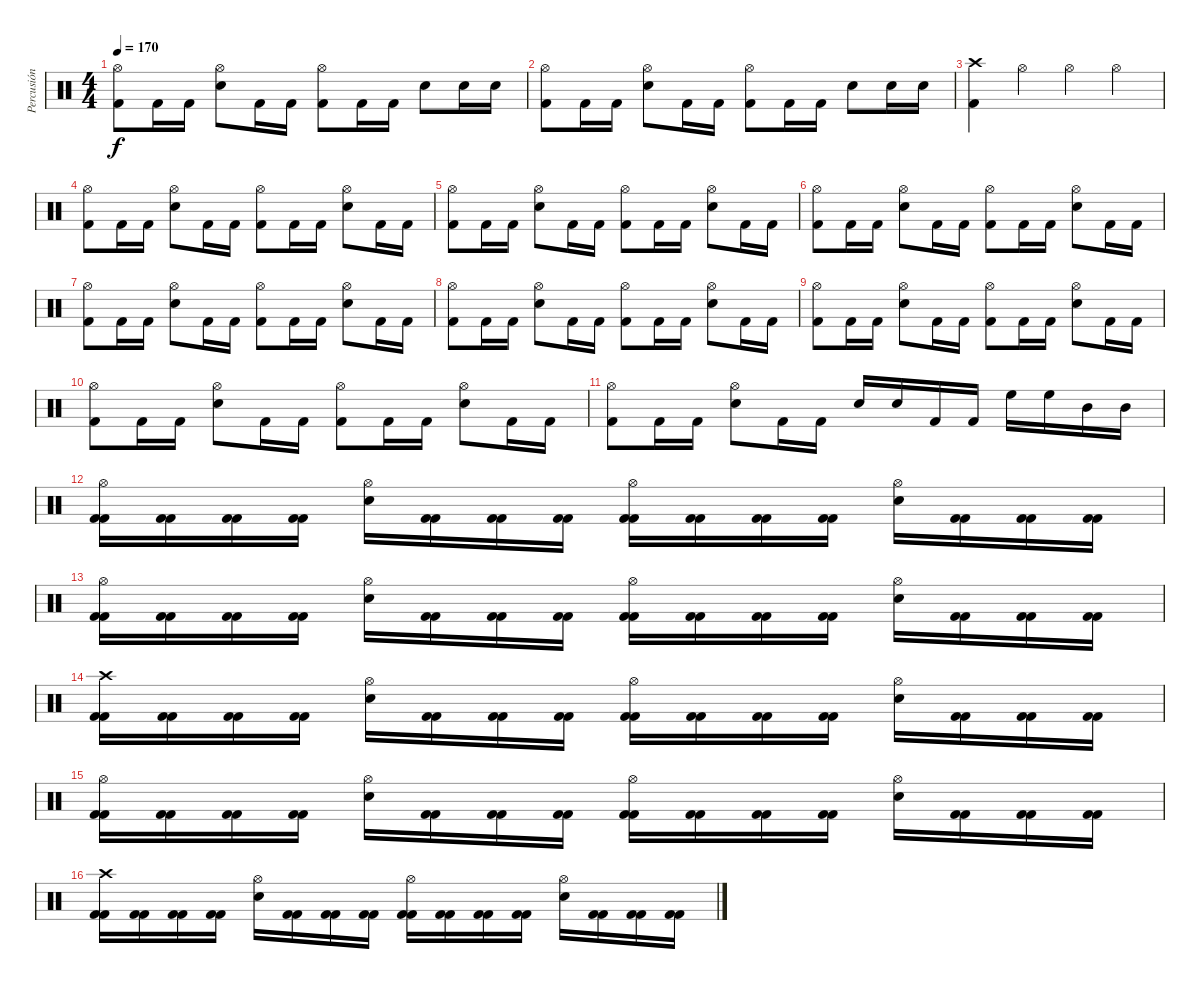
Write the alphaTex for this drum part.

\track ("Percusión" "Percusión") {instrument percussion}
\staff {score}
\articulation defaults
\ts (4 4)
\tempo 170
\clef neutral
\ks c
("Hi-Hat (open)" "Kick (hit) 2").8{dy f} "Kick (hit) 2".16 "Kick (hit) 2".16 ("Hi-Hat (open)" "Electric Snare (hit)").8 "Kick (hit) 2".16 "Kick (hit) 2".16 ("Hi-Hat (open)" "Kick (hit) 2").8 "Kick (hit) 2".16 "Kick (hit) 2".16 "Electric Snare (hit)".8 "Electric Snare (hit)".16 "Electric Snare (hit)".16 |
("Hi-Hat (open)" "Kick (hit) 2").8 "Kick (hit) 2".16 "Kick (hit) 2".16 ("Hi-Hat (open)" "Electric Snare (hit)").8 "Kick (hit) 2".16 "Kick (hit) 2".16 ("Hi-Hat (open)" "Kick (hit) 2").8 "Kick (hit) 2".16 "Kick (hit) 2".16 "Electric Snare (hit)".8 "Electric Snare (hit)".16 "Electric Snare (hit)".16 |
("Crash high (hit)" "Kick (hit) 2").4 "Hi-Hat (open)".4 "Hi-Hat (open)".4 "Hi-Hat (open)".4 |
("Hi-Hat (open)" "Kick (hit) 2").8 "Kick (hit) 2".16 "Kick (hit) 2".16 ("Hi-Hat (open)" "Electric Snare (hit)").8 "Kick (hit) 2".16 "Kick (hit) 2".16 ("Hi-Hat (open)" "Kick (hit) 2").8 "Kick (hit) 2".16 "Kick (hit) 2".16 ("Hi-Hat (open)" "Electric Snare (hit)").8 "Kick (hit) 2".16 "Kick (hit) 2".16 |
("Hi-Hat (open)" "Kick (hit) 2").8 "Kick (hit) 2".16 "Kick (hit) 2".16 ("Hi-Hat (open)" "Electric Snare (hit)").8 "Kick (hit) 2".16 "Kick (hit) 2".16 ("Hi-Hat (open)" "Kick (hit) 2").8 "Kick (hit) 2".16 "Kick (hit) 2".16 ("Hi-Hat (open)" "Electric Snare (hit)").8 "Kick (hit) 2".16 "Kick (hit) 2".16 |
("Hi-Hat (open)" "Kick (hit) 2").8 "Kick (hit) 2".16 "Kick (hit) 2".16 ("Hi-Hat (open)" "Electric Snare (hit)").8 "Kick (hit) 2".16 "Kick (hit) 2".16 ("Hi-Hat (open)" "Kick (hit) 2").8 "Kick (hit) 2".16 "Kick (hit) 2".16 ("Hi-Hat (open)" "Electric Snare (hit)").8 "Kick (hit) 2".16 "Kick (hit) 2".16 |
("Hi-Hat (open)" "Kick (hit) 2").8 "Kick (hit) 2".16 "Kick (hit) 2".16 ("Hi-Hat (open)" "Electric Snare (hit)").8 "Kick (hit) 2".16 "Kick (hit) 2".16 ("Hi-Hat (open)" "Kick (hit) 2").8 "Kick (hit) 2".16 "Kick (hit) 2".16 ("Hi-Hat (open)" "Electric Snare (hit)").8 "Kick (hit) 2".16 "Kick (hit) 2".16 |
("Hi-Hat (open)" "Kick (hit) 2").8 "Kick (hit) 2".16 "Kick (hit) 2".16 ("Hi-Hat (open)" "Electric Snare (hit)").8 "Kick (hit) 2".16 "Kick (hit) 2".16 ("Hi-Hat (open)" "Kick (hit) 2").8 "Kick (hit) 2".16 "Kick (hit) 2".16 ("Hi-Hat (open)" "Electric Snare (hit)").8 "Kick (hit) 2".16 "Kick (hit) 2".16 |
("Hi-Hat (open)" "Kick (hit) 2").8 "Kick (hit) 2".16 "Kick (hit) 2".16 ("Hi-Hat (open)" "Electric Snare (hit)").8 "Kick (hit) 2".16 "Kick (hit) 2".16 ("Hi-Hat (open)" "Kick (hit) 2").8 "Kick (hit) 2".16 "Kick (hit) 2".16 ("Hi-Hat (open)" "Electric Snare (hit)").8 "Kick (hit) 2".16 "Kick (hit) 2".16 |
("Hi-Hat (open)" "Kick (hit) 2").8 "Kick (hit) 2".16 "Kick (hit) 2".16 ("Hi-Hat (open)" "Electric Snare (hit)").8 "Kick (hit) 2".16 "Kick (hit) 2".16 ("Hi-Hat (open)" "Kick (hit) 2").8 "Kick (hit) 2".16 "Kick (hit) 2".16 ("Hi-Hat (open)" "Electric Snare (hit)").8 "Kick (hit) 2".16 "Kick (hit) 2".16 |
("Hi-Hat (open)" "Kick (hit) 2").8 "Kick (hit) 2".16 "Kick (hit) 2".16 ("Hi-Hat (open)" "Electric Snare (hit)").8 "Kick (hit) 2".16 "Kick (hit) 2".16 "Electric Snare (hit)".16 "Electric Snare (hit)".16 "Kick (hit) 2".16 "Kick (hit) 2".16 "High Floor Tom (hit)".16 "High Floor Tom (hit)".16 "Mid Tom (hit)".16 "Mid Tom (hit)".16 |
("Hi-Hat (open)" "Kick (hit) 2" "Kick (hit) 2").16 ("Kick (hit) 2" "Kick (hit) 2").16 ("Kick (hit) 2" "Kick (hit) 2").16 ("Kick (hit) 2" "Kick (hit) 2").16 ("Hi-Hat (open)" "Electric Snare (hit)").16 ("Kick (hit) 2" "Kick (hit) 2").16 ("Kick (hit) 2" "Kick (hit) 2").16 ("Kick (hit) 2" "Kick (hit) 2").16 ("Hi-Hat (open)" "Kick (hit) 2" "Kick (hit) 2").16 ("Kick (hit) 2" "Kick (hit) 2").16 ("Kick (hit) 2" "Kick (hit) 2").16 ("Kick (hit) 2" "Kick (hit) 2").16 ("Hi-Hat (open)" "Electric Snare (hit)").16 ("Kick (hit) 2" "Kick (hit) 2").16 ("Kick (hit) 2" "Kick (hit) 2").16 ("Kick (hit) 2" "Kick (hit) 2").16 |
("Hi-Hat (open)" "Kick (hit) 2" "Kick (hit) 2").16 ("Kick (hit) 2" "Kick (hit) 2").16 ("Kick (hit) 2" "Kick (hit) 2").16 ("Kick (hit) 2" "Kick (hit) 2").16 ("Hi-Hat (open)" "Electric Snare (hit)").16 ("Kick (hit) 2" "Kick (hit) 2").16 ("Kick (hit) 2" "Kick (hit) 2").16 ("Kick (hit) 2" "Kick (hit) 2").16 ("Hi-Hat (open)" "Kick (hit) 2" "Kick (hit) 2").16 ("Kick (hit) 2" "Kick (hit) 2").16 ("Kick (hit) 2" "Kick (hit) 2").16 ("Kick (hit) 2" "Kick (hit) 2").16 ("Hi-Hat (open)" "Electric Snare (hit)").16 ("Kick (hit) 2" "Kick (hit) 2").16 ("Kick (hit) 2" "Kick (hit) 2").16 ("Kick (hit) 2" "Kick (hit) 2").16 |
("Crash high (hit)" "Kick (hit) 2" "Kick (hit) 2").16 ("Kick (hit) 2" "Kick (hit) 2").16 ("Kick (hit) 2" "Kick (hit) 2").16 ("Kick (hit) 2" "Kick (hit) 2").16 ("Hi-Hat (open)" "Electric Snare (hit)").16 ("Kick (hit) 2" "Kick (hit) 2").16 ("Kick (hit) 2" "Kick (hit) 2").16 ("Kick (hit) 2" "Kick (hit) 2").16 ("Hi-Hat (open)" "Kick (hit) 2" "Kick (hit) 2").16 ("Kick (hit) 2" "Kick (hit) 2").16 ("Kick (hit) 2" "Kick (hit) 2").16 ("Kick (hit) 2" "Kick (hit) 2").16 ("Hi-Hat (open)" "Electric Snare (hit)").16 ("Kick (hit) 2" "Kick (hit) 2").16 ("Kick (hit) 2" "Kick (hit) 2").16 ("Kick (hit) 2" "Kick (hit) 2").16 |
("Hi-Hat (open)" "Kick (hit) 2" "Kick (hit) 2").16 ("Kick (hit) 2" "Kick (hit) 2").16 ("Kick (hit) 2" "Kick (hit) 2").16 ("Kick (hit) 2" "Kick (hit) 2").16 ("Hi-Hat (open)" "Electric Snare (hit)").16 ("Kick (hit) 2" "Kick (hit) 2").16 ("Kick (hit) 2" "Kick (hit) 2").16 ("Kick (hit) 2" "Kick (hit) 2").16 ("Hi-Hat (open)" "Kick (hit) 2" "Kick (hit) 2").16 ("Kick (hit) 2" "Kick (hit) 2").16 ("Kick (hit) 2" "Kick (hit) 2").16 ("Kick (hit) 2" "Kick (hit) 2").16 ("Hi-Hat (open)" "Electric Snare (hit)").16 ("Kick (hit) 2" "Kick (hit) 2").16 ("Kick (hit) 2" "Kick (hit) 2").16 ("Kick (hit) 2" "Kick (hit) 2").16 |
("Crash high (hit)" "Kick (hit) 2" "Kick (hit) 2").16 ("Kick (hit) 2" "Kick (hit) 2").16 ("Kick (hit) 2" "Kick (hit) 2").16 ("Kick (hit) 2" "Kick (hit) 2").16 ("Hi-Hat (open)" "Electric Snare (hit)").16 ("Kick (hit) 2" "Kick (hit) 2").16 ("Kick (hit) 2" "Kick (hit) 2").16 ("Kick (hit) 2" "Kick (hit) 2").16 ("Hi-Hat (open)" "Kick (hit) 2" "Kick (hit) 2").16 ("Kick (hit) 2" "Kick (hit) 2").16 ("Kick (hit) 2" "Kick (hit) 2").16 ("Kick (hit) 2" "Kick (hit) 2").16 ("Hi-Hat (open)" "Electric Snare (hit)").16 ("Kick (hit) 2" "Kick (hit) 2").16 ("Kick (hit) 2" "Kick (hit) 2").16 ("Kick (hit) 2" "Kick (hit) 2").16
